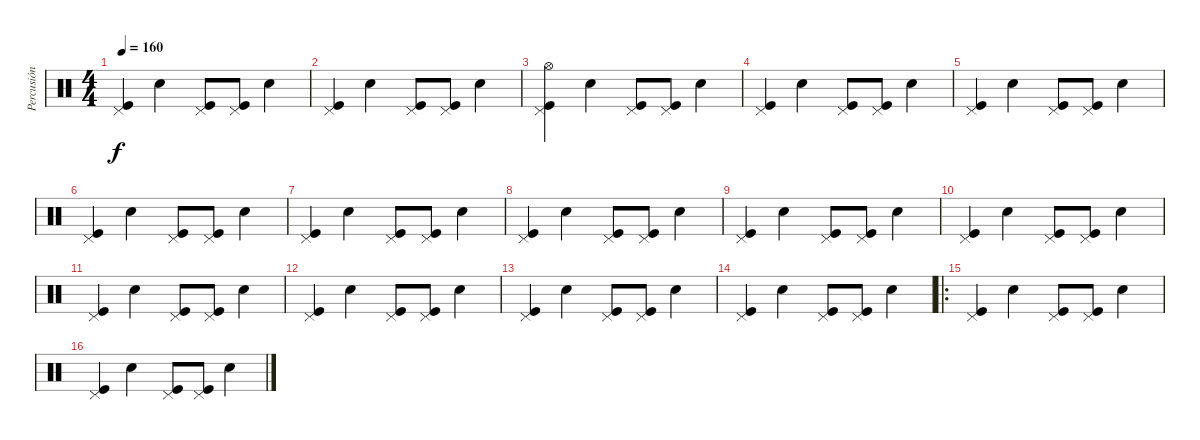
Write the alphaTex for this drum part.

\track ("Percusión" "Percusión") {instrument percussion}
\staff {score}
\articulation defaults
\ts (4 4)
\tempo 160
\clef neutral
\ks c
("Pedal Hi-Hat (hit)" "Kick (hit)").4{dy f} "Snare (hit) 2".4 ("Pedal Hi-Hat (hit)" "Kick (hit)").8 ("Pedal Hi-Hat (hit)" "Kick (hit)").8 "Snare (hit) 2".4 |
("Pedal Hi-Hat (hit)" "Kick (hit)").4 "Snare (hit) 2".4 ("Pedal Hi-Hat (hit)" "Kick (hit)").8 ("Pedal Hi-Hat (hit)" "Kick (hit)").8 "Snare (hit) 2".4 |
("Pedal Hi-Hat (hit)" "Hi-Hat (open)" "Kick (hit)").4 "Snare (hit) 2".4 ("Pedal Hi-Hat (hit)" "Kick (hit)").8 ("Pedal Hi-Hat (hit)" "Kick (hit)").8 "Snare (hit) 2".4 |
("Pedal Hi-Hat (hit)" "Kick (hit)").4 "Snare (hit) 2".4 ("Pedal Hi-Hat (hit)" "Kick (hit)").8 ("Pedal Hi-Hat (hit)" "Kick (hit)").8 "Snare (hit) 2".4 |
("Pedal Hi-Hat (hit)" "Kick (hit)").4 "Snare (hit) 2".4 ("Pedal Hi-Hat (hit)" "Kick (hit)").8 ("Pedal Hi-Hat (hit)" "Kick (hit)").8 "Snare (hit) 2".4 |
("Pedal Hi-Hat (hit)" "Kick (hit)").4 "Snare (hit) 2".4 ("Pedal Hi-Hat (hit)" "Kick (hit)").8 ("Pedal Hi-Hat (hit)" "Kick (hit)").8 "Snare (hit) 2".4 |
("Pedal Hi-Hat (hit)" "Kick (hit)").4 "Snare (hit) 2".4 ("Pedal Hi-Hat (hit)" "Kick (hit)").8 ("Pedal Hi-Hat (hit)" "Kick (hit)").8 "Snare (hit) 2".4 |
("Pedal Hi-Hat (hit)" "Kick (hit)").4 "Snare (hit) 2".4 ("Pedal Hi-Hat (hit)" "Kick (hit)").8 ("Pedal Hi-Hat (hit)" "Kick (hit)").8 "Snare (hit) 2".4 |
("Pedal Hi-Hat (hit)" "Kick (hit)").4 "Snare (hit) 2".4 ("Pedal Hi-Hat (hit)" "Kick (hit)").8 ("Pedal Hi-Hat (hit)" "Kick (hit)").8 "Snare (hit) 2".4 |
("Pedal Hi-Hat (hit)" "Kick (hit)").4 "Snare (hit) 2".4 ("Pedal Hi-Hat (hit)" "Kick (hit)").8 ("Pedal Hi-Hat (hit)" "Kick (hit)").8 "Snare (hit) 2".4 |
("Pedal Hi-Hat (hit)" "Kick (hit)").4 "Snare (hit) 2".4 ("Pedal Hi-Hat (hit)" "Kick (hit)").8 ("Pedal Hi-Hat (hit)" "Kick (hit)").8 "Snare (hit) 2".4 |
("Pedal Hi-Hat (hit)" "Kick (hit)").4 "Snare (hit) 2".4 ("Pedal Hi-Hat (hit)" "Kick (hit)").8 ("Pedal Hi-Hat (hit)" "Kick (hit)").8 "Snare (hit) 2".4 |
("Pedal Hi-Hat (hit)" "Kick (hit)").4 "Snare (hit) 2".4 ("Pedal Hi-Hat (hit)" "Kick (hit)").8 ("Pedal Hi-Hat (hit)" "Kick (hit)").8 "Snare (hit) 2".4 |
("Pedal Hi-Hat (hit)" "Kick (hit)").4 "Snare (hit) 2".4 ("Pedal Hi-Hat (hit)" "Kick (hit)").8 ("Pedal Hi-Hat (hit)" "Kick (hit)").8 "Snare (hit) 2".4 |
\ro
("Pedal Hi-Hat (hit)" "Kick (hit)").4 "Snare (hit) 2".4 ("Pedal Hi-Hat (hit)" "Kick (hit)").8 ("Pedal Hi-Hat (hit)" "Kick (hit)").8 "Snare (hit) 2".4 |
("Pedal Hi-Hat (hit)" "Kick (hit)").4 "Snare (hit) 2".4 ("Pedal Hi-Hat (hit)" "Kick (hit)").8 ("Pedal Hi-Hat (hit)" "Kick (hit)").8 "Snare (hit) 2".4
